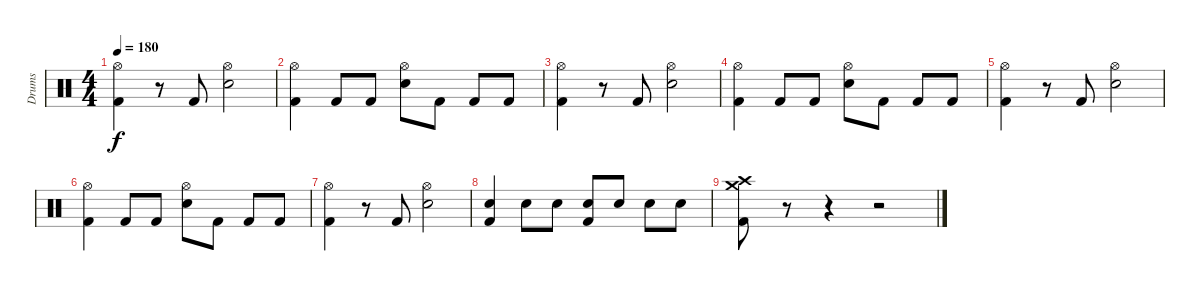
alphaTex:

\track ("Drums" "Drums") {instrument percussion}
\staff {score}
\articulation defaults
\ts (4 4)
\tempo 180
\clef neutral
\ks c
("Hi-Hat (open)" "Kick (hit) 2").4{dy f} r.8 "Kick (hit) 2".8 ("Hi-Hat (open)" "Snare (hit) 2").2 |
("Hi-Hat (open)" "Kick (hit) 2").4 "Kick (hit) 2".8 "Kick (hit) 2".8 ("Hi-Hat (open)" "Snare (hit) 2").8 "Kick (hit) 2".8 "Kick (hit) 2".8 "Kick (hit) 2".8 |
("Hi-Hat (open)" "Kick (hit) 2").4 r.8 "Kick (hit) 2".8 ("Hi-Hat (open)" "Snare (hit) 2").2 |
("Hi-Hat (open)" "Kick (hit) 2").4 "Kick (hit) 2".8 "Kick (hit) 2".8 ("Hi-Hat (open)" "Snare (hit) 2").8 "Kick (hit) 2".8 "Kick (hit) 2".8 "Kick (hit) 2".8 |
("Hi-Hat (open)" "Kick (hit) 2").4 r.8 "Kick (hit) 2".8 ("Hi-Hat (open)" "Snare (hit) 2").2 |
("Hi-Hat (open)" "Kick (hit) 2").4 "Kick (hit) 2".8 "Kick (hit) 2".8 ("Hi-Hat (open)" "Snare (hit) 2").8 "Kick (hit) 2".8 "Kick (hit) 2".8 "Kick (hit) 2".8 |
("Hi-Hat (open)" "Kick (hit) 2").4 r.8 "Kick (hit) 2".8 ("Hi-Hat (open)" "Snare (hit) 2").2 |
("Snare (hit) 2" "Kick (hit) 2").4 "Snare (hit) 2".8 "Snare (hit) 2".8 ("Snare (hit) 2" "Kick (hit) 2").8 "Snare (hit) 2".8 "Snare (hit) 2".8 "Snare (hit) 2".8 |
("Crash medium (hit)" "Crash high (hit)" "Kick (hit) 2").8 r.8 r.4 r.2
